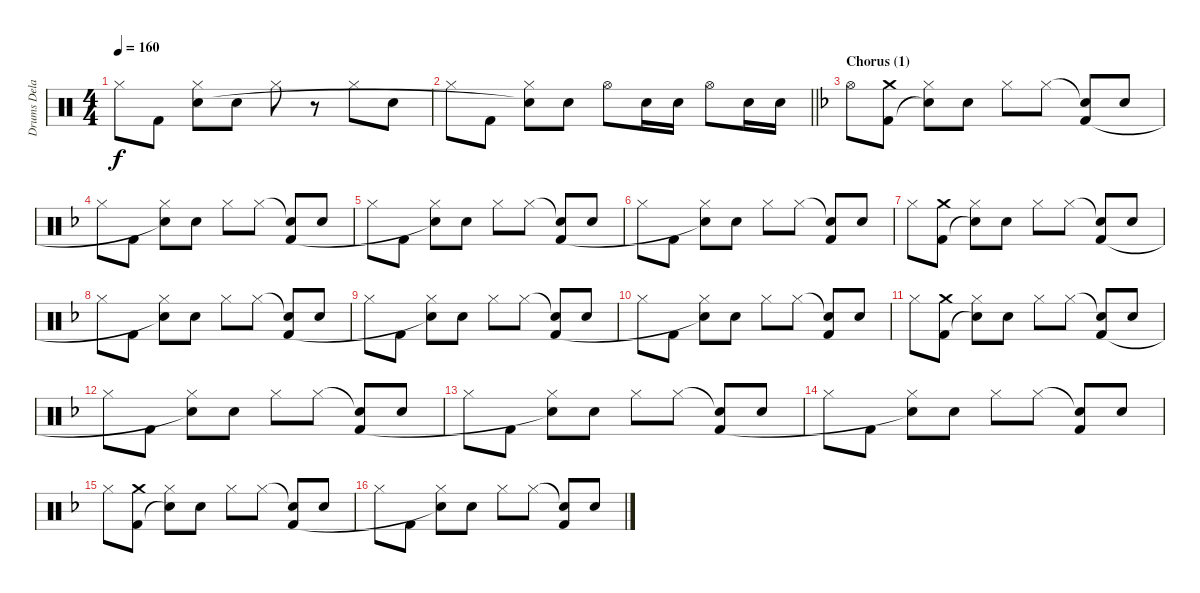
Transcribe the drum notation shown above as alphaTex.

\track ("Drums Delay" "Drums Dela") {instrument percussion}
\staff {score}
\articulation defaults
\ts (4 4)
\tempo 160
\clef neutral
\ks c "Hi-Hat (closed)".8{dy f} "Kick (hit) 2".8
("Hi-Hat (closed)" "Snare (hit)"{t}).8 "Electric Snare (hit)".8 "Hi-Hat (closed)".8 r.8 "Hi-Hat (closed)".8 "Electric Snare (hit)".8 |
\barLineRight lightlight "Hi-Hat (closed)".8 "Kick (hit) 2".8
("Hi-Hat (closed)" "Snare (hit)"{t}).8 "Electric Snare (hit)".8 "Hi-Hat (open)".8 "Electric Snare (hit)".16 "Electric Snare (hit)".16 "Hi-Hat (open)".8 "Electric Snare (hit)".16 "Electric Snare (hit)".16 |
\section ("" "Chorus (1)")
\ks f "Hi-Hat (open)".8
("Crash medium (hit)" "Kick (hit) 2").8 ("Hi-Hat (closed)" "Snare (hit)"{t}).8 "Electric Snare (hit)".8 "Hi-Hat (closed)".8 "Hi-Hat (closed)".8 ("Snare (hit)"{t} "Kick (hit) 2").8 "Electric Snare (hit)".8 |
"Hi-Hat (closed)".8 "Kick (hit) 2".8 ("Hi-Hat (closed)" "Snare (hit)"{t}).8 "Electric Snare (hit)".8 "Hi-Hat (closed)".8 "Hi-Hat (closed)".8 ("Snare (hit)"{t} "Kick (hit) 2").8 "Electric Snare (hit)".8 |
"Hi-Hat (closed)".8 "Kick (hit) 2".8 ("Hi-Hat (closed)" "Snare (hit)"{t}).8 "Electric Snare (hit)".8 "Hi-Hat (closed)".8 "Hi-Hat (closed)".8 ("Snare (hit)"{t} "Kick (hit) 2").8 "Electric Snare (hit)".8 |
"Hi-Hat (closed)".8 "Kick (hit) 2".8 ("Hi-Hat (closed)" "Snare (hit)"{t}).8 "Electric Snare (hit)".8 "Hi-Hat (closed)".8 "Hi-Hat (closed)".8 ("Snare (hit)"{t} "Kick (hit) 2").8 "Electric Snare (hit)".8 |
"Hi-Hat (closed)".8 ("Crash medium (hit)" "Kick (hit) 2").8 ("Hi-Hat (closed)" "Snare (hit)"{t}).8 "Electric Snare (hit)".8 "Hi-Hat (closed)".8 "Hi-Hat (closed)".8 ("Snare (hit)"{t} "Kick (hit) 2").8 "Electric Snare (hit)".8 |
"Hi-Hat (closed)".8 "Kick (hit) 2".8 ("Hi-Hat (closed)" "Snare (hit)"{t}).8 "Electric Snare (hit)".8 "Hi-Hat (closed)".8 "Hi-Hat (closed)".8 ("Snare (hit)"{t} "Kick (hit) 2").8 "Electric Snare (hit)".8 |
"Hi-Hat (closed)".8 "Kick (hit) 2".8 ("Hi-Hat (closed)" "Snare (hit)"{t}).8 "Electric Snare (hit)".8 "Hi-Hat (closed)".8 "Hi-Hat (closed)".8 ("Snare (hit)"{t} "Kick (hit) 2").8 "Electric Snare (hit)".8 |
"Hi-Hat (closed)".8 "Kick (hit) 2".8 ("Hi-Hat (closed)" "Snare (hit)"{t}).8 "Electric Snare (hit)".8 "Hi-Hat (closed)".8 "Hi-Hat (closed)".8 ("Snare (hit)"{t} "Kick (hit) 2").8 "Electric Snare (hit)".8 |
"Hi-Hat (closed)".8 ("Crash medium (hit)" "Kick (hit) 2").8 ("Hi-Hat (closed)" "Snare (hit)"{t}).8 "Electric Snare (hit)".8 "Hi-Hat (closed)".8 "Hi-Hat (closed)".8 ("Snare (hit)"{t} "Kick (hit) 2").8 "Electric Snare (hit)".8 |
"Hi-Hat (closed)".8 "Kick (hit) 2".8 ("Hi-Hat (closed)" "Snare (hit)"{t}).8 "Electric Snare (hit)".8 "Hi-Hat (closed)".8 "Hi-Hat (closed)".8 ("Snare (hit)"{t} "Kick (hit) 2").8 "Electric Snare (hit)".8 |
"Hi-Hat (closed)".8 "Kick (hit) 2".8 ("Hi-Hat (closed)" "Snare (hit)"{t}).8 "Electric Snare (hit)".8 "Hi-Hat (closed)".8 "Hi-Hat (closed)".8 ("Snare (hit)"{t} "Kick (hit) 2").8 "Electric Snare (hit)".8 |
"Hi-Hat (closed)".8 "Kick (hit) 2".8 ("Hi-Hat (closed)" "Snare (hit)"{t}).8 "Electric Snare (hit)".8 "Hi-Hat (closed)".8 "Hi-Hat (closed)".8 ("Snare (hit)"{t} "Kick (hit) 2").8 "Electric Snare (hit)".8 |
"Hi-Hat (closed)".8 ("Crash medium (hit)" "Kick (hit) 2").8 ("Hi-Hat (closed)" "Snare (hit)"{t}).8 "Electric Snare (hit)".8 "Hi-Hat (closed)".8 "Hi-Hat (closed)".8 ("Snare (hit)"{t} "Kick (hit) 2").8 "Electric Snare (hit)".8 |
"Hi-Hat (closed)".8 "Kick (hit) 2".8 ("Hi-Hat (closed)" "Snare (hit)"{t}).8 "Electric Snare (hit)".8 "Hi-Hat (closed)".8 "Hi-Hat (closed)".8 ("Snare (hit)"{t} "Kick (hit) 2").8 "Electric Snare (hit)".8
